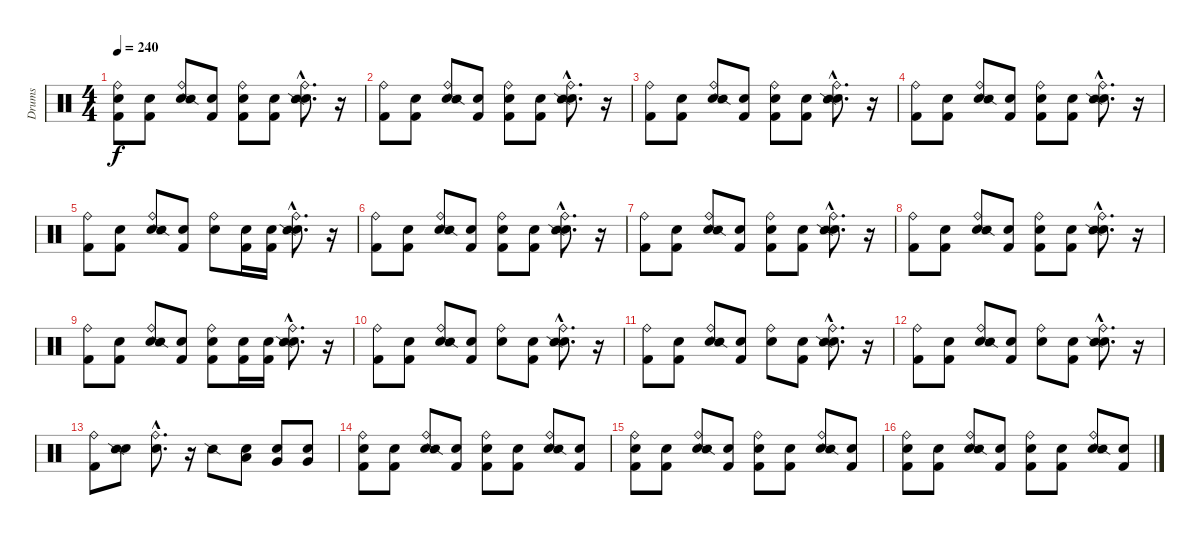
\track ("Drums" "Drums") {instrument percussion}
\staff {score}
\articulation defaults
\ts (4 4)
\tempo 240
\clef neutral
\ks c
("Snare (hit)" "Kick (hit) 2" "Ride (bell)").8{dy f} ("Snare (hit)" "Kick (hit) 2").8 ("Snare (hit)" "Ride (bell)" "Snare (side stick) 2").8 ("Snare (hit)" "Kick (hit) 2").8 ("Snare (hit)" "Kick (hit) 2" "Ride (bell)").8 ("Snare (hit)" "Kick (hit) 2").8 ("Snare (hit)"{hac} "Snare (side stick) 2"{hac} "Ride (bell)"{hac}).8{d} r.16 |
("Kick (hit) 2" "Ride (bell)").8 ("Snare (hit)" "Kick (hit) 2").8 ("Snare (hit)" "Ride (bell)" "Snare (side stick) 2").8 ("Snare (hit)" "Kick (hit) 2").8 ("Snare (hit)" "Kick (hit) 2" "Ride (bell)").8 ("Snare (hit)" "Kick (hit) 2").8 ("Snare (hit)"{hac} "Snare (side stick) 2"{hac} "Ride (bell)"{hac}).8{d} r.16 |
("Kick (hit) 2" "Ride (bell)").8 ("Snare (hit)" "Kick (hit) 2").8 ("Snare (hit)" "Ride (bell)" "Snare (side stick) 2").8 ("Snare (hit)" "Kick (hit) 2").8 ("Snare (hit)" "Kick (hit) 2" "Ride (bell)").8 ("Snare (hit)" "Kick (hit) 2").8 ("Snare (hit)"{hac} "Snare (side stick) 2"{hac} "Ride (bell)"{hac}).8{d} r.16 |
("Kick (hit) 2" "Ride (bell)").8 ("Snare (hit)" "Kick (hit) 2").8 ("Snare (hit)" "Ride (bell)" "Snare (side stick) 2").8 ("Snare (hit)" "Kick (hit) 2").8 ("Snare (hit)" "Kick (hit) 2" "Ride (bell)").8 ("Snare (hit)" "Kick (hit) 2").8 ("Snare (hit)"{hac} "Snare (side stick) 2"{hac} "Ride (bell)"{hac}).8{d} r.16 |
("Kick (hit) 2" "Ride (bell)").8 ("Snare (hit)" "Kick (hit) 2").8 ("Snare (hit)" "Ride (bell)" "Snare (side stick) 2").8 ("Snare (hit)" "Kick (hit) 2").8 ("Snare (hit)" "Ride (bell)").8 ("Snare (hit)" "Kick (hit) 2").16 ("Snare (hit)" "Kick (hit) 2").16 ("Snare (hit)"{hac} "Snare (side stick) 2"{hac} "Ride (bell)"{hac}).8{d} r.16 |
("Kick (hit) 2" "Ride (bell)").8 ("Snare (hit)" "Kick (hit) 2").8 ("Snare (hit)" "Ride (bell)" "Snare (side stick) 2").8 ("Snare (hit)" "Kick (hit) 2").8 ("Snare (hit)" "Kick (hit) 2" "Ride (bell)").8 ("Snare (hit)" "Kick (hit) 2").8 ("Snare (hit)"{hac} "Snare (side stick) 2"{hac} "Ride (bell)"{hac}).8{d} r.16 |
("Kick (hit) 2" "Ride (bell)").8 ("Snare (hit)" "Kick (hit) 2").8 ("Snare (hit)" "Ride (bell)" "Snare (side stick) 2").8 ("Snare (hit)" "Kick (hit) 2").8 ("Snare (hit)" "Kick (hit) 2" "Ride (bell)").8 ("Snare (hit)" "Kick (hit) 2").8 ("Snare (hit)"{hac} "Snare (side stick) 2"{hac} "Ride (bell)"{hac}).8{d} r.16 |
("Kick (hit) 2" "Ride (bell)").8 ("Snare (hit)" "Kick (hit) 2").8 ("Snare (hit)" "Ride (bell)" "Snare (side stick) 2").8 ("Snare (hit)" "Kick (hit) 2").8 ("Snare (hit)" "Kick (hit) 2" "Ride (bell)").8 ("Snare (hit)" "Kick (hit) 2").8 ("Snare (hit)"{hac} "Snare (side stick) 2"{hac} "Ride (bell)"{hac}).8{d} r.16 |
("Kick (hit) 2" "Ride (bell)").8 ("Snare (hit)" "Kick (hit) 2").8 ("Snare (hit)" "Ride (bell)" "Snare (side stick) 2").8 ("Snare (hit)" "Kick (hit) 2").8 ("Snare (hit)" "Kick (hit) 2" "Ride (bell)").8 ("Snare (hit)" "Kick (hit) 2").16 ("Snare (hit)" "Kick (hit) 2").16 ("Snare (hit)"{hac} "Snare (side stick) 2"{hac} "Ride (bell)"{hac}).8{d} r.16 |
("Kick (hit) 2" "Ride (bell)").8 ("Snare (hit)" "Kick (hit) 2").8 ("Snare (hit)" "Ride (bell)" "Snare (side stick) 2").8 ("Snare (hit)" "Kick (hit) 2").8 ("Snare (hit)" "Ride (bell)").8 ("Snare (hit)" "Kick (hit) 2").8 ("Snare (hit)"{hac} "Snare (side stick) 2"{hac} "Ride (bell)"{hac}).8{d} r.16 |
("Kick (hit) 2" "Ride (bell)").8 ("Snare (hit)" "Kick (hit) 2").8 ("Snare (hit)" "Ride (bell)" "Snare (side stick) 2").8 ("Snare (hit)" "Kick (hit) 2").8 ("Snare (hit)" "Ride (bell)").8 ("Snare (hit)" "Kick (hit) 2").8 ("Snare (hit)"{hac} "Snare (side stick) 2"{hac} "Ride (bell)"{hac}).8{d} r.16 |
("Kick (hit) 2" "Ride (bell)").8 ("Snare (hit)" "Kick (hit) 2").8 ("Snare (hit)" "Ride (bell)" "Snare (side stick) 2").8 ("Snare (hit)" "Kick (hit) 2").8 ("Snare (hit)" "Ride (bell)").8 ("Snare (hit)" "Kick (hit) 2").8 ("Snare (hit)"{hac} "Snare (side stick) 2"{hac} "Ride (bell)"{hac}).8{d} r.16 |
("Kick (hit) 2" "Ride (bell)").8 ("Snare (hit)" "Snare (side stick) 2").8 ("Snare (hit)"{hac} "Ride (bell)"{hac}).8{d} r.16 "Snare (side stick) 2".8 ("Snare (hit)" "Low Tom (hit)").8 ("Snare (hit)" "Very Low Tom (hit)").8 ("Snare (hit)" "Very Low Tom (hit)").8 |
("Snare (hit)" "Kick (hit) 2" "Ride (bell)").8 ("Snare (hit)" "Kick (hit) 2").8 ("Snare (hit)" "Ride (bell)" "Snare (side stick) 2").8 ("Snare (hit)" "Kick (hit) 2").8 ("Snare (hit)" "Kick (hit) 2" "Ride (bell)").8 ("Snare (hit)" "Kick (hit) 2").8 ("Snare (hit)" "Ride (bell)" "Snare (side stick) 2").8 ("Snare (hit)" "Kick (hit) 2").8 |
("Snare (hit)" "Kick (hit) 2" "Ride (bell)").8 ("Snare (hit)" "Kick (hit) 2").8 ("Snare (hit)" "Ride (bell)" "Snare (side stick) 2").8 ("Snare (hit)" "Kick (hit) 2").8 ("Snare (hit)" "Kick (hit) 2" "Ride (bell)").8 ("Snare (hit)" "Kick (hit) 2").8 ("Snare (hit)" "Ride (bell)" "Snare (side stick) 2").8 ("Snare (hit)" "Kick (hit) 2").8 |
("Snare (hit)" "Kick (hit) 2" "Ride (bell)").8 ("Snare (hit)" "Kick (hit) 2").8 ("Snare (hit)" "Ride (bell)" "Snare (side stick) 2").8 ("Snare (hit)" "Kick (hit) 2").8 ("Snare (hit)" "Kick (hit) 2" "Ride (bell)").8 ("Snare (hit)" "Kick (hit) 2").8 ("Snare (hit)" "Ride (bell)" "Snare (side stick) 2").8 ("Snare (hit)" "Kick (hit) 2").8
